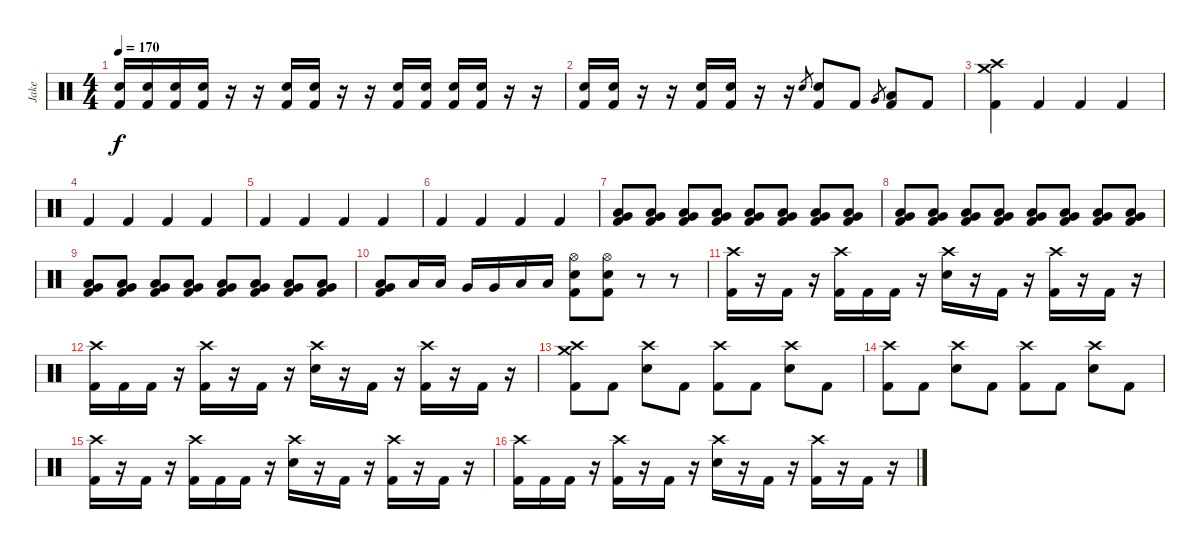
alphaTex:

\track ("Jake" "Jake") {instrument percussion}
\staff {score}
\articulation defaults
\ts (4 4)
\tempo 170
\clef neutral
\ks c
("Electric Snare (hit)" "Kick (hit) 2").16{dy f} ("Electric Snare (hit)" "Kick (hit) 2").16 ("Electric Snare (hit)" "Kick (hit) 2").16 ("Electric Snare (hit)" "Kick (hit) 2").16 r.16 r.16 ("Electric Snare (hit)" "Kick (hit) 2").16 ("Electric Snare (hit)" "Kick (hit) 2").16 r.16 r.16 ("Electric Snare (hit)" "Kick (hit) 2").16 ("Electric Snare (hit)" "Kick (hit) 2").16 ("Electric Snare (hit)" "Kick (hit) 2").16 ("Electric Snare (hit)" "Kick (hit) 2").16 r.16 r.16 |
("Electric Snare (hit)" "Kick (hit) 2").16 ("Electric Snare (hit)" "Kick (hit) 2").16 r.16 r.16 ("Electric Snare (hit)" "Kick (hit) 2").16 ("Electric Snare (hit)" "Kick (hit) 2").16 r.16 r.16 "Electric Snare (hit)".8{gr} ("Electric Snare (hit)" "Kick (hit) 2").8 "Kick (hit) 2".8 "Very Low Tom (hit)".8{gr} ("Low Floor Tom (hit)" "Kick (hit) 2").8 "Kick (hit) 2".8 |
("Crash medium (hit)" "Crash high (hit)" "Kick (hit) 2").4 "Kick (hit) 2".4 "Kick (hit) 2".4 "Kick (hit) 2".4 |
"Kick (hit) 2".4 "Kick (hit) 2".4 "Kick (hit) 2".4 "Kick (hit) 2".4 |
"Kick (hit) 2".4 "Kick (hit) 2".4 "Kick (hit) 2".4 "Kick (hit) 2".4 |
"Kick (hit) 2".4 "Kick (hit) 2".4 "Kick (hit) 2".4 "Kick (hit) 2".4 |
("Very Low Tom (hit)" "Low Floor Tom (hit)" "Kick (hit) 2").8 ("Very Low Tom (hit)" "Low Floor Tom (hit)" "Kick (hit) 2").8 ("Very Low Tom (hit)" "Low Floor Tom (hit)" "Kick (hit) 2").8 ("Very Low Tom (hit)" "Low Floor Tom (hit)" "Kick (hit) 2").8 ("Very Low Tom (hit)" "Low Floor Tom (hit)" "Kick (hit) 2").8 ("Very Low Tom (hit)" "Low Floor Tom (hit)" "Kick (hit) 2").8 ("Very Low Tom (hit)" "Low Floor Tom (hit)" "Kick (hit) 2").8 ("Very Low Tom (hit)" "Low Floor Tom (hit)" "Kick (hit) 2").8 |
("Very Low Tom (hit)" "Low Floor Tom (hit)" "Kick (hit) 2").8 ("Very Low Tom (hit)" "Low Floor Tom (hit)" "Kick (hit) 2").8 ("Very Low Tom (hit)" "Low Floor Tom (hit)" "Kick (hit) 2").8 ("Very Low Tom (hit)" "Low Floor Tom (hit)" "Kick (hit) 2").8 ("Very Low Tom (hit)" "Low Floor Tom (hit)" "Kick (hit) 2").8 ("Very Low Tom (hit)" "Low Floor Tom (hit)" "Kick (hit) 2").8 ("Very Low Tom (hit)" "Low Floor Tom (hit)" "Kick (hit) 2").8 ("Very Low Tom (hit)" "Low Floor Tom (hit)" "Kick (hit) 2").8 |
("Very Low Tom (hit)" "Low Floor Tom (hit)" "Kick (hit) 2").8 ("Very Low Tom (hit)" "Low Floor Tom (hit)" "Kick (hit) 2").8 ("Very Low Tom (hit)" "Low Floor Tom (hit)" "Kick (hit) 2").8 ("Very Low Tom (hit)" "Low Floor Tom (hit)" "Kick (hit) 2").8 ("Very Low Tom (hit)" "Low Floor Tom (hit)" "Kick (hit) 2").8 ("Very Low Tom (hit)" "Low Floor Tom (hit)" "Kick (hit) 2").8 ("Very Low Tom (hit)" "Low Floor Tom (hit)" "Kick (hit) 2").8 ("Very Low Tom (hit)" "Low Floor Tom (hit)" "Kick (hit) 2").8 |
("Very Low Tom (hit)" "Low Floor Tom (hit)" "Kick (hit) 2").8 "Low Tom (hit)".16 "Low Tom (hit)".16 "Very Low Tom (hit)".16 "Very Low Tom (hit)".16 "Low Floor Tom (hit)".16 "Low Floor Tom (hit)".16 ("Hi-Hat (open)" "Electric Snare (hit)" "Kick (hit) 2").8 ("Hi-Hat (open)" "Electric Snare (hit)" "Kick (hit) 2").8 r.8 r.8 |
("Crash high (hit)" "Kick (hit) 2").16{volume 13} r.16 "Kick (hit) 2".16 r.16 ("Crash high (hit)" "Kick (hit) 2").16 "Kick (hit) 2".16 "Kick (hit) 2".16 r.16 ("Crash high (hit)" "Electric Snare (hit)").16 r.16 "Kick (hit) 2".16 r.16 ("Crash high (hit)" "Kick (hit) 2").16 r.16 "Kick (hit) 2".16 r.16 |
("Crash high (hit)" "Kick (hit) 2").16 "Kick (hit) 2".16 "Kick (hit) 2".16 r.16 ("Crash high (hit)" "Kick (hit) 2").16 r.16 "Kick (hit) 2".16 r.16 ("Crash high (hit)" "Electric Snare (hit)").16 r.16 "Kick (hit) 2".16 r.16 ("Crash high (hit)" "Kick (hit) 2").16 r.16 "Kick (hit) 2".16 r.16 |
("Crash high (hit)" "Crash medium (hit)" "Kick (hit) 2").8 "Kick (hit) 2".8 ("Crash high (hit)" "Electric Snare (hit)").8 "Kick (hit) 2".8 ("Crash high (hit)" "Kick (hit) 2").8 "Kick (hit) 2".8 ("Crash high (hit)" "Electric Snare (hit)").8 "Kick (hit) 2".8 |
("Crash high (hit)" "Kick (hit) 2").8 "Kick (hit) 2".8 ("Crash high (hit)" "Electric Snare (hit)").8 "Kick (hit) 2".8 ("Crash high (hit)" "Kick (hit) 2").8 "Kick (hit) 2".8 ("Crash high (hit)" "Electric Snare (hit)").8 "Kick (hit) 2".8 |
("Crash high (hit)" "Kick (hit) 2").16 r.16 "Kick (hit) 2".16 r.16 ("Crash high (hit)" "Kick (hit) 2").16 "Kick (hit) 2".16 "Kick (hit) 2".16 r.16 ("Crash high (hit)" "Electric Snare (hit)").16 r.16 "Kick (hit) 2".16 r.16 ("Crash high (hit)" "Kick (hit) 2").16 r.16 "Kick (hit) 2".16 r.16 |
("Crash high (hit)" "Kick (hit) 2").16 "Kick (hit) 2".16 "Kick (hit) 2".16 r.16 ("Crash high (hit)" "Kick (hit) 2").16 r.16 "Kick (hit) 2".16 r.16 ("Crash high (hit)" "Electric Snare (hit)").16 r.16 "Kick (hit) 2".16 r.16 ("Crash high (hit)" "Kick (hit) 2").16 r.16 "Kick (hit) 2".16 r.16
